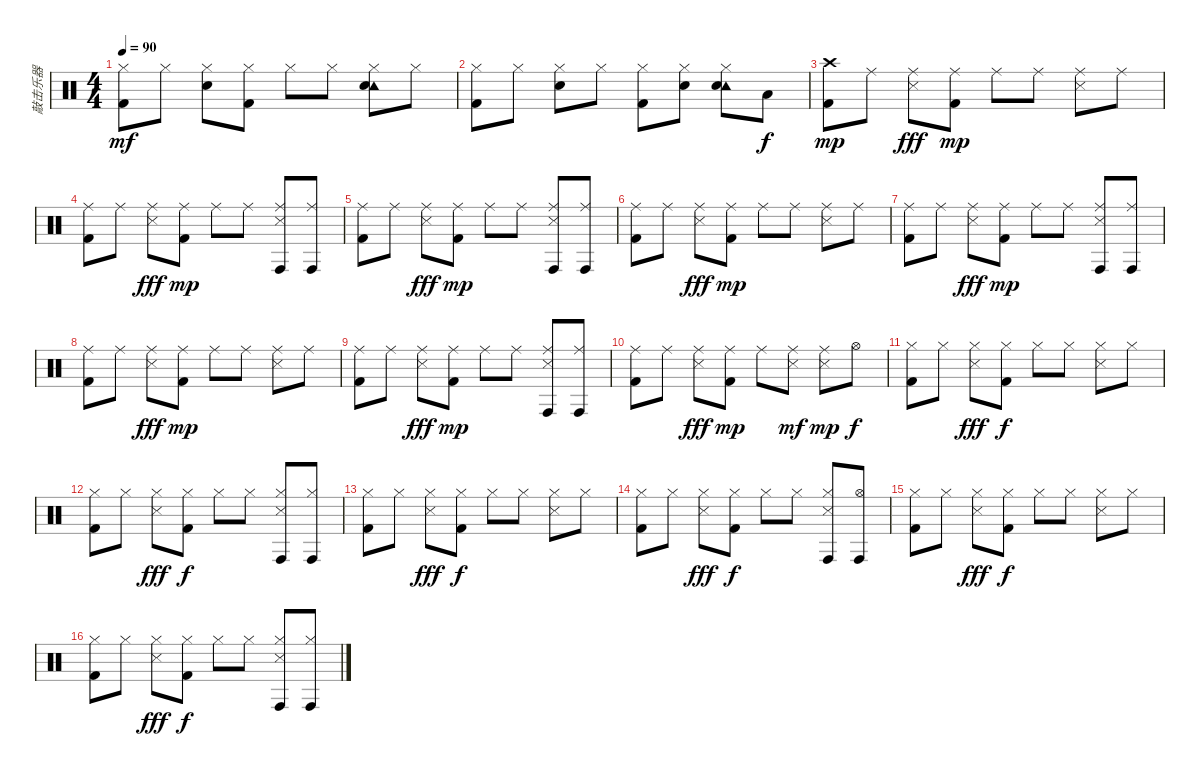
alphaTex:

\track ("敲击乐器" "敲击乐器") {instrument percussion}
\staff {score}
\articulation defaults
\ts (4 4)
\tempo 90
\clef neutral
\ks c
("Hi-Hat (closed)" "Kick (hit) 2").8{dy mf} "Hi-Hat (closed)".8 ("Hi-Hat (closed)" "Snare (hit) 2").8 ("Hi-Hat (closed)" "Kick (hit) 2").8 "Hi-Hat (closed)".8 "Hi-Hat (closed)".8 ("Hi-Hat (closed)" "Tambourine (hit)" "Snare (hit) 2").8 "Hi-Hat (closed)".8 |
("Hi-Hat (closed)" "Kick (hit) 2").8 "Hi-Hat (closed)".8 ("Hi-Hat (closed)" "Snare (hit) 2").8 "Hi-Hat (closed)".8 ("Hi-Hat (closed)" "Kick (hit) 2").8 ("Hi-Hat (closed)" "Snare (hit) 2").8 ("Hi-Hat (closed)" "Tambourine (hit)" "Snare (hit) 2").8 "Low Tom (hit)".8{dy f} |
("Crash high (hit)" "Kick (hit) 2").8{dy mp} "Ride (middle)".8 ("Ride (middle)" "Snare (side stick) 3").8{dy fff} ("Ride (middle)" "Kick (hit) 2").8{dy mp} "Ride (middle)".8 "Ride (middle)".8 ("Ride (middle)" "Snare (side stick) 3").8 "Ride (middle)".8 |
("Ride (middle)" "Kick (hit) 2").8 "Ride (middle)".8 ("Ride (middle)" "Snare (side stick) 3").8{dy fff} ("Ride (middle)" "Kick (hit) 2").8{dy mp} "Ride (middle)".8 "Ride (middle)".8 ("Ride (middle)" "Conga high (hit)" "Snare (side stick) 3").8 ("Ride (middle)" "Conga high (hit)").8 |
("Ride (middle)" "Kick (hit) 2").8 "Ride (middle)".8 ("Ride (middle)" "Snare (side stick) 3").8{dy fff} ("Ride (middle)" "Kick (hit) 2").8{dy mp} "Ride (middle)".8 "Ride (middle)".8 ("Ride (middle)" "Conga high (hit)" "Snare (side stick) 3").8 ("Ride (middle)" "Conga high (hit)").8 |
("Ride (middle)" "Kick (hit) 2").8 "Ride (middle)".8 ("Ride (middle)" "Snare (side stick) 3").8{dy fff} ("Ride (middle)" "Kick (hit) 2").8{dy mp} "Ride (middle)".8 "Ride (middle)".8 ("Ride (middle)" "Snare (side stick) 3").8 "Ride (middle)".8 |
("Ride (middle)" "Kick (hit) 2").8 "Ride (middle)".8 ("Ride (middle)" "Snare (side stick) 3").8{dy fff} ("Ride (middle)" "Kick (hit) 2").8{dy mp} "Ride (middle)".8 "Ride (middle)".8 ("Ride (middle)" "Conga high (hit)" "Snare (side stick) 3").8 ("Ride (middle)" "Conga high (hit)").8 |
("Ride (middle)" "Kick (hit) 2").8 "Ride (middle)".8 ("Ride (middle)" "Snare (side stick) 3").8{dy fff} ("Ride (middle)" "Kick (hit) 2").8{dy mp} "Ride (middle)".8 "Ride (middle)".8 ("Ride (middle)" "Snare (side stick) 3").8 "Ride (middle)".8 |
("Ride (middle)" "Kick (hit) 2").8 "Ride (middle)".8 ("Ride (middle)" "Snare (side stick) 3").8{dy fff} ("Ride (middle)" "Kick (hit) 2").8{dy mp} "Ride (middle)".8 "Ride (middle)".8 ("Ride (middle)" "Conga high (hit)" "Snare (side stick) 3").8 ("Ride (middle)" "Conga high (hit)").8 |
("Ride (middle)" "Kick (hit) 2").8 "Ride (middle)".8 ("Ride (middle)" "Snare (side stick) 3").8{dy fff} ("Ride (middle)" "Kick (hit) 2").8{dy mp} "Ride (middle)".8 ("Ride (middle)" "Snare (side stick) 3").8{dy mf} ("Ride (middle)" "Snare (side stick) 3").8{dy mp} "Hi-Hat (open)".8{dy f} |
("Hi-Hat (closed)" "Kick (hit) 2").8 "Hi-Hat (closed)".8 ("Hi-Hat (closed)" "Snare (side stick) 3").8{dy fff} ("Hi-Hat (closed)" "Kick (hit) 2").8{dy f} "Hi-Hat (closed)".8 "Hi-Hat (closed)".8 ("Hi-Hat (closed)" "Snare (side stick) 3").8 "Hi-Hat (closed)".8 |
("Hi-Hat (closed)" "Kick (hit) 2").8 "Hi-Hat (closed)".8 ("Hi-Hat (closed)" "Snare (side stick) 3").8{dy fff} ("Hi-Hat (closed)" "Kick (hit) 2").8{dy f} "Hi-Hat (closed)".8 "Hi-Hat (closed)".8 ("Hi-Hat (closed)" "Conga high (hit)" "Snare (side stick) 3").8 ("Hi-Hat (closed)" "Conga high (hit)").8 |
("Hi-Hat (closed)" "Kick (hit) 2").8 "Hi-Hat (closed)".8 ("Hi-Hat (closed)" "Snare (side stick) 3").8{dy fff} ("Hi-Hat (closed)" "Kick (hit) 2").8{dy f} "Hi-Hat (closed)".8 "Hi-Hat (closed)".8 ("Hi-Hat (closed)" "Snare (side stick) 3").8 "Hi-Hat (closed)".8 |
("Hi-Hat (closed)" "Kick (hit) 2").8 "Hi-Hat (closed)".8 ("Hi-Hat (closed)" "Snare (side stick) 3").8{dy fff} ("Hi-Hat (closed)" "Kick (hit) 2").8{dy f} "Hi-Hat (closed)".8 "Hi-Hat (closed)".8 ("Hi-Hat (closed)" "Conga high (hit)" "Snare (side stick) 3").8 ("Hi-Hat (open)" "Conga high (hit)").8 |
("Hi-Hat (closed)" "Kick (hit) 2").8 "Hi-Hat (closed)".8 ("Hi-Hat (closed)" "Snare (side stick) 3").8{dy fff} ("Hi-Hat (closed)" "Kick (hit) 2").8{dy f} "Hi-Hat (closed)".8 "Hi-Hat (closed)".8 ("Hi-Hat (closed)" "Snare (side stick) 3").8 "Hi-Hat (closed)".8 |
("Hi-Hat (closed)" "Kick (hit) 2").8 "Hi-Hat (closed)".8 ("Hi-Hat (closed)" "Snare (side stick) 3").8{dy fff} ("Hi-Hat (closed)" "Kick (hit) 2").8{dy f} "Hi-Hat (closed)".8 "Hi-Hat (closed)".8 ("Hi-Hat (closed)" "Conga high (hit)" "Snare (side stick) 3").8 ("Hi-Hat (closed)" "Conga high (hit)").8
